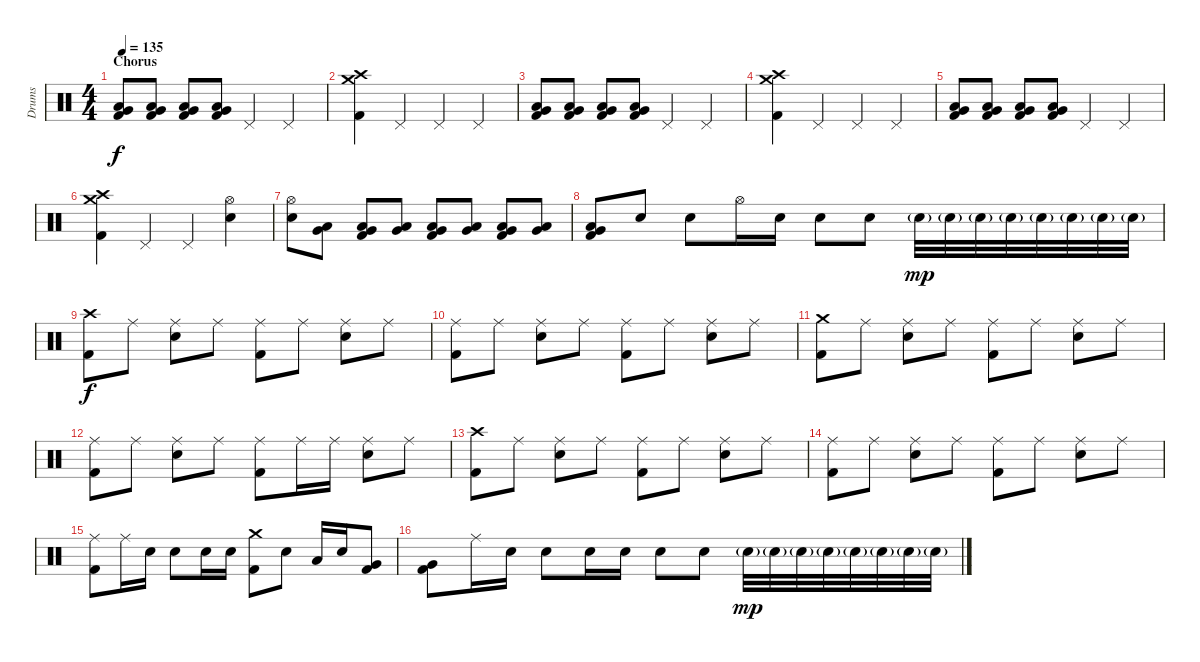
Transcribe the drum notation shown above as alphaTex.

\track ("Drums" "Drums") {instrument percussion}
\staff {score}
\articulation defaults
\ts (4 4)
\section ("" "Chorus")
\tempo 135
\clef neutral
\ks c
("Very Low Tom (hit)" "Low Tom (hit)" "Kick (hit) 2").8{dy f} ("Very Low Tom (hit)" "Low Tom (hit)" "Kick (hit) 2").8 ("Very Low Tom (hit)" "Low Tom (hit)" "Kick (hit) 2").8 ("Very Low Tom (hit)" "Low Tom (hit)" "Kick (hit) 2").8 "Pedal Hi-Hat (hit)".4 "Pedal Hi-Hat (hit)".4 |
("Crash high (hit)" "Crash medium (hit)" "Kick (hit) 2").4 "Pedal Hi-Hat (hit)".4 "Pedal Hi-Hat (hit)".4 "Pedal Hi-Hat (hit)".4 |
("Very Low Tom (hit)" "Low Tom (hit)" "Kick (hit) 2").8 ("Very Low Tom (hit)" "Low Tom (hit)" "Kick (hit) 2").8 ("Very Low Tom (hit)" "Low Tom (hit)" "Kick (hit) 2").8 ("Very Low Tom (hit)" "Low Tom (hit)" "Kick (hit) 2").8 "Pedal Hi-Hat (hit)".4 "Pedal Hi-Hat (hit)".4 |
("Crash high (hit)" "Crash medium (hit)" "Kick (hit) 2").4 "Pedal Hi-Hat (hit)".4 "Pedal Hi-Hat (hit)".4 "Pedal Hi-Hat (hit)".4 |
("Very Low Tom (hit)" "Low Tom (hit)" "Kick (hit) 2").8 ("Very Low Tom (hit)" "Low Tom (hit)" "Kick (hit) 2").8 ("Very Low Tom (hit)" "Low Tom (hit)" "Kick (hit) 2").8 ("Very Low Tom (hit)" "Low Tom (hit)" "Kick (hit) 2").8 "Pedal Hi-Hat (hit)".4 "Pedal Hi-Hat (hit)".4 |
("Crash high (hit)" "Crash medium (hit)" "Kick (hit) 2").4 "Pedal Hi-Hat (hit)".4 "Pedal Hi-Hat (hit)".4 ("Hi-Hat (open)" "Snare (hit) 2").4 |
("Hi-Hat (open)" "Snare (hit) 2").8 ("Low Tom (hit)" "Very Low Tom (hit)").8 ("Low Tom (hit)" "Very Low Tom (hit)" "Kick (hit) 2").8 ("Low Tom (hit)" "Very Low Tom (hit)").8 ("Low Tom (hit)" "Very Low Tom (hit)" "Kick (hit) 2").8 ("Low Tom (hit)" "Very Low Tom (hit)").8 ("Low Tom (hit)" "Very Low Tom (hit)" "Kick (hit) 2").8 ("Low Tom (hit)" "Very Low Tom (hit)").8 |
("Low Tom (hit)" "Very Low Tom (hit)" "Kick (hit) 2").8 "Snare (hit) 2".8 "Snare (hit) 2".8 "Hi-Hat (open)".16 "Snare (hit) 2".16 "Snare (hit) 2".8 "Snare (hit) 2".8 "Snare (hit) 2"{g}.32{dy mp} "Snare (hit) 2"{g}.32 "Snare (hit) 2"{g}.32 "Snare (hit) 2"{g}.32 "Snare (hit) 2"{g}.32 "Snare (hit) 2"{g}.32 "Snare (hit) 2"{g}.32 "Snare (hit) 2"{g}.32 |
("Crash high (hit)" "Kick (hit) 2").8{dy f} "Ride (middle)".8 ("Ride (middle)" "Snare (hit) 2").8 "Ride (middle)".8 ("Ride (middle)" "Kick (hit) 2").8 "Ride (middle)".8 ("Ride (middle)" "Snare (hit) 2").8 "Ride (middle)".8 |
("Ride (middle)" "Kick (hit) 2").8 "Ride (middle)".8 ("Ride (middle)" "Snare (hit) 2").8 "Ride (middle)".8 ("Ride (middle)" "Kick (hit) 2").8 "Ride (middle)".8 ("Ride (middle)" "Snare (hit) 2").8 "Ride (middle)".8 |
("Crash medium (hit)" "Kick (hit) 2").8 "Ride (middle)".8 ("Ride (middle)" "Snare (hit) 2").8 "Ride (middle)".8 ("Ride (middle)" "Kick (hit) 2").8 "Ride (middle)".8 ("Ride (middle)" "Snare (hit) 2").8 "Ride (middle)".8 |
("Ride (middle)" "Kick (hit) 2").8 "Ride (middle)".8 ("Ride (middle)" "Snare (hit) 2").8 "Ride (middle)".8 ("Ride (middle)" "Kick (hit) 2").8 "Ride (middle)".16 "Ride (middle)".16 ("Ride (middle)" "Snare (hit) 2").8 "Ride (middle)".8 |
("Crash high (hit)" "Kick (hit) 2").8 "Ride (middle)".8 ("Ride (middle)" "Snare (hit) 2").8 "Ride (middle)".8 ("Ride (middle)" "Kick (hit) 2").8 "Ride (middle)".8 ("Ride (middle)" "Snare (hit) 2").8 "Ride (middle)".8 |
("Ride (middle)" "Kick (hit) 2").8 "Ride (middle)".8 ("Ride (middle)" "Snare (hit) 2").8 "Ride (middle)".8 ("Ride (middle)" "Kick (hit) 2").8 "Ride (middle)".8 ("Ride (middle)" "Snare (hit) 2").8 "Ride (middle)".8 |
("Ride (middle)" "Kick (hit) 2").8 "Ride (middle)".16 "Snare (hit) 2".16 "Snare (hit) 2".8 "Snare (hit) 2".16 "Snare (hit) 2".16 ("Crash medium (hit)" "Kick (hit) 2").8 "Snare (hit) 2".8 "Low Tom (hit)".16 "Snare (hit) 2".16 ("Very Low Tom (hit)" "Kick (hit) 2").8 |
("Very Low Tom (hit)" "Kick (hit) 2").8 "Ride (middle)".16 "Snare (hit) 2".16 "Snare (hit) 2".8 "Snare (hit) 2".16 "Snare (hit) 2".16 "Snare (hit) 2".8 "Snare (hit) 2".8 "Snare (hit) 2"{g}.32{dy mp} "Snare (hit) 2"{g}.32 "Snare (hit) 2"{g}.32 "Snare (hit) 2"{g}.32 "Snare (hit) 2"{g}.32 "Snare (hit) 2"{g}.32 "Snare (hit) 2"{g}.32 "Snare (hit) 2"{g}.32
